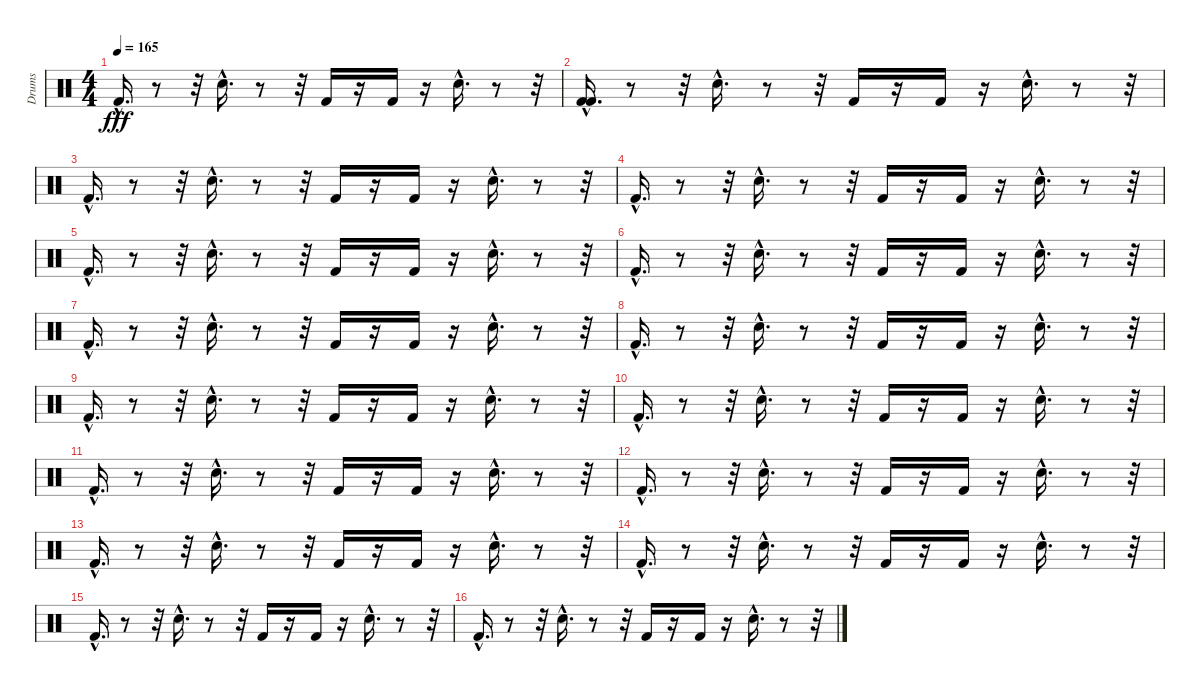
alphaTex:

\track ("Drums" "Drums") {instrument percussion}
\staff {score}
\articulation defaults
\ts (4 4)
\tempo 165
\clef neutral
\ks c "Kick (hit) 2"{hac}.16{d dy fff}
r.8 r.32 "Electric Snare (hit)"{hac}.16{d} r.8 r.32 "Kick (hit) 2".16 r.16 "Kick (hit) 2".16 r.16 "Electric Snare (hit)"{hac}.16{d} r.8 r.32 |
("Kick (hit) 2"{hac} "Kick (hit) 2"{hac}).16{d} r.8 r.32 "Electric Snare (hit)"{hac}.16{d} r.8 r.32 "Kick (hit) 2".16 r.16 "Kick (hit) 2".16 r.16 "Electric Snare (hit)"{hac}.16{d} r.8 r.32 |
"Kick (hit) 2"{hac}.16{d} r.8 r.32 "Electric Snare (hit)"{hac}.16{d} r.8 r.32 "Kick (hit) 2".16 r.16 "Kick (hit) 2".16 r.16 "Electric Snare (hit)"{hac}.16{d} r.8 r.32 |
"Kick (hit) 2"{hac}.16{d} r.8 r.32 "Electric Snare (hit)"{hac}.16{d} r.8 r.32 "Kick (hit) 2".16 r.16 "Kick (hit) 2".16 r.16 "Electric Snare (hit)"{hac}.16{d} r.8 r.32 |
"Kick (hit) 2"{hac}.16{d} r.8 r.32 "Electric Snare (hit)"{hac}.16{d} r.8 r.32 "Kick (hit) 2".16 r.16 "Kick (hit) 2".16 r.16 "Electric Snare (hit)"{hac}.16{d} r.8 r.32 |
"Kick (hit) 2"{hac}.16{d} r.8 r.32 "Electric Snare (hit)"{hac}.16{d} r.8 r.32 "Kick (hit) 2".16 r.16 "Kick (hit) 2".16 r.16 "Electric Snare (hit)"{hac}.16{d} r.8 r.32 |
"Kick (hit) 2"{hac}.16{d} r.8 r.32 "Electric Snare (hit)"{hac}.16{d} r.8 r.32 "Kick (hit) 2".16 r.16 "Kick (hit) 2".16 r.16 "Electric Snare (hit)"{hac}.16{d} r.8 r.32 |
"Kick (hit) 2"{hac}.16{d} r.8 r.32 "Electric Snare (hit)"{hac}.16{d} r.8 r.32 "Kick (hit) 2".16 r.16 "Kick (hit) 2".16 r.16 "Electric Snare (hit)"{hac}.16{d} r.8 r.32 |
"Kick (hit) 2"{hac}.16{d} r.8 r.32 "Electric Snare (hit)"{hac}.16{d} r.8 r.32 "Kick (hit) 2".16 r.16 "Kick (hit) 2".16 r.16 "Electric Snare (hit)"{hac}.16{d} r.8 r.32 |
"Kick (hit) 2"{hac}.16{d} r.8 r.32 "Electric Snare (hit)"{hac}.16{d} r.8 r.32 "Kick (hit) 2".16 r.16 "Kick (hit) 2".16 r.16 "Electric Snare (hit)"{hac}.16{d} r.8 r.32 |
"Kick (hit) 2"{hac}.16{d} r.8 r.32 "Electric Snare (hit)"{hac}.16{d} r.8 r.32 "Kick (hit) 2".16 r.16 "Kick (hit) 2".16 r.16 "Electric Snare (hit)"{hac}.16{d} r.8 r.32 |
"Kick (hit) 2"{hac}.16{d} r.8 r.32 "Electric Snare (hit)"{hac}.16{d} r.8 r.32 "Kick (hit) 2".16 r.16 "Kick (hit) 2".16 r.16 "Electric Snare (hit)"{hac}.16{d} r.8 r.32 |
"Kick (hit) 2"{hac}.16{d} r.8 r.32 "Electric Snare (hit)"{hac}.16{d} r.8 r.32 "Kick (hit) 2".16 r.16 "Kick (hit) 2".16 r.16 "Electric Snare (hit)"{hac}.16{d} r.8 r.32 |
"Kick (hit) 2"{hac}.16{d} r.8 r.32 "Electric Snare (hit)"{hac}.16{d} r.8 r.32 "Kick (hit) 2".16 r.16 "Kick (hit) 2".16 r.16 "Electric Snare (hit)"{hac}.16{d} r.8 r.32 |
"Kick (hit) 2"{hac}.16{d} r.8 r.32 "Electric Snare (hit)"{hac}.16{d} r.8 r.32 "Kick (hit) 2".16 r.16 "Kick (hit) 2".16 r.16 "Electric Snare (hit)"{hac}.16{d} r.8 r.32 |
"Kick (hit) 2"{hac}.16{d} r.8 r.32 "Electric Snare (hit)"{hac}.16{d} r.8 r.32 "Kick (hit) 2".16 r.16 "Kick (hit) 2".16 r.16 "Electric Snare (hit)"{hac}.16{d} r.8 r.32
